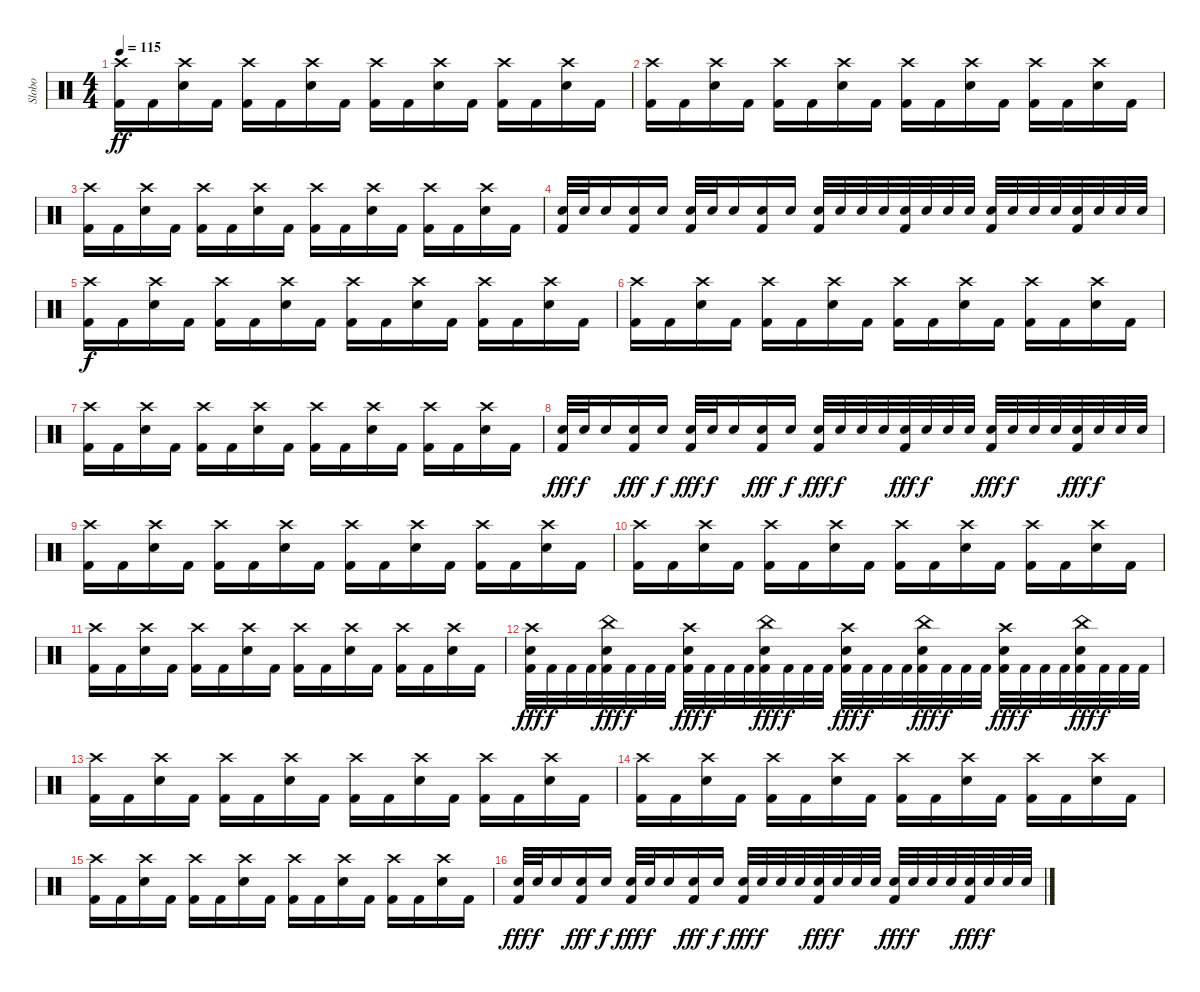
\track ("Slobo" "Slobo") {instrument percussion}
\staff {score}
\articulation defaults
\ts (4 4)
\tempo 115
\clef neutral
\ks c
("Crash high (hit)" "Kick (hit) 2").16{dy ff} "Kick (hit) 2".16 ("Crash high (hit)" "Snare (hit) 2").16 "Kick (hit) 2".16 ("Crash high (hit)" "Kick (hit) 2").16 "Kick (hit) 2".16 ("Crash high (hit)" "Snare (hit) 2").16 "Kick (hit) 2".16 ("Crash high (hit)" "Kick (hit) 2").16 "Kick (hit) 2".16 ("Crash high (hit)" "Snare (hit) 2").16 "Kick (hit) 2".16 ("Crash high (hit)" "Kick (hit) 2").16 "Kick (hit) 2".16 ("Crash high (hit)" "Snare (hit) 2").16 "Kick (hit) 2".16 |
("Crash high (hit)" "Kick (hit) 2").16 "Kick (hit) 2".16 ("Crash high (hit)" "Snare (hit) 2").16 "Kick (hit) 2".16 ("Crash high (hit)" "Kick (hit) 2").16 "Kick (hit) 2".16 ("Crash high (hit)" "Snare (hit) 2").16 "Kick (hit) 2".16 ("Crash high (hit)" "Kick (hit) 2").16 "Kick (hit) 2".16 ("Crash high (hit)" "Snare (hit) 2").16 "Kick (hit) 2".16 ("Crash high (hit)" "Kick (hit) 2").16 "Kick (hit) 2".16 ("Crash high (hit)" "Snare (hit) 2").16 "Kick (hit) 2".16 |
("Crash high (hit)" "Kick (hit) 2").16 "Kick (hit) 2".16 ("Crash high (hit)" "Snare (hit) 2").16 "Kick (hit) 2".16 ("Crash high (hit)" "Kick (hit) 2").16 "Kick (hit) 2".16 ("Crash high (hit)" "Snare (hit) 2").16 "Kick (hit) 2".16 ("Crash high (hit)" "Kick (hit) 2").16 "Kick (hit) 2".16 ("Crash high (hit)" "Snare (hit) 2").16 "Kick (hit) 2".16 ("Crash high (hit)" "Kick (hit) 2").16 "Kick (hit) 2".16 ("Crash high (hit)" "Snare (hit) 2").16 "Kick (hit) 2".16 |
("Kick (hit) 2" "Snare (hit) 2").32 "Snare (hit) 2".32 "Snare (hit) 2".16 ("Kick (hit) 2" "Snare (hit) 2").16 "Snare (hit) 2".16 ("Kick (hit) 2" "Snare (hit) 2").32 "Snare (hit) 2".32 "Snare (hit) 2".16 ("Kick (hit) 2" "Snare (hit) 2").16 "Snare (hit) 2".16 ("Kick (hit) 2" "Snare (hit) 2").32 "Snare (hit) 2".32 "Snare (hit) 2".32 "Snare (hit) 2".32 ("Kick (hit) 2" "Snare (hit) 2").32 "Snare (hit) 2".32 "Snare (hit) 2".32 "Snare (hit) 2".32 ("Kick (hit) 2" "Snare (hit) 2").32 "Snare (hit) 2".32 "Snare (hit) 2".32 "Snare (hit) 2".32 ("Kick (hit) 2" "Snare (hit) 2").32 "Snare (hit) 2".32 "Snare (hit) 2".32 "Snare (hit) 2".32 |
("Crash high (hit)" "Kick (hit) 2").16{dy f} "Kick (hit) 2".16 ("Crash high (hit)" "Snare (hit) 2").16 "Kick (hit) 2".16 ("Crash high (hit)" "Kick (hit) 2").16 "Kick (hit) 2".16 ("Crash high (hit)" "Snare (hit) 2").16 "Kick (hit) 2".16 ("Crash high (hit)" "Kick (hit) 2").16 "Kick (hit) 2".16 ("Crash high (hit)" "Snare (hit) 2").16 "Kick (hit) 2".16 ("Crash high (hit)" "Kick (hit) 2").16 "Kick (hit) 2".16 ("Crash high (hit)" "Snare (hit) 2").16 "Kick (hit) 2".16 |
("Crash high (hit)" "Kick (hit) 2").16 "Kick (hit) 2".16 ("Crash high (hit)" "Snare (hit) 2").16 "Kick (hit) 2".16 ("Crash high (hit)" "Kick (hit) 2").16 "Kick (hit) 2".16 ("Crash high (hit)" "Snare (hit) 2").16 "Kick (hit) 2".16 ("Crash high (hit)" "Kick (hit) 2").16 "Kick (hit) 2".16 ("Crash high (hit)" "Snare (hit) 2").16 "Kick (hit) 2".16 ("Crash high (hit)" "Kick (hit) 2").16 "Kick (hit) 2".16 ("Crash high (hit)" "Snare (hit) 2").16 "Kick (hit) 2".16 |
("Crash high (hit)" "Kick (hit) 2").16 "Kick (hit) 2".16 ("Crash high (hit)" "Snare (hit) 2").16 "Kick (hit) 2".16 ("Crash high (hit)" "Kick (hit) 2").16 "Kick (hit) 2".16 ("Crash high (hit)" "Snare (hit) 2").16 "Kick (hit) 2".16 ("Crash high (hit)" "Kick (hit) 2").16 "Kick (hit) 2".16 ("Crash high (hit)" "Snare (hit) 2").16 "Kick (hit) 2".16 ("Crash high (hit)" "Kick (hit) 2").16 "Kick (hit) 2".16 ("Crash high (hit)" "Snare (hit) 2").16 "Kick (hit) 2".16 |
("Kick (hit) 2" "Snare (hit) 2").32{dy fff} "Snare (hit) 2".32{dy f} "Snare (hit) 2".16 ("Kick (hit) 2" "Snare (hit) 2").16{dy fff} "Snare (hit) 2".16{dy f} ("Kick (hit) 2" "Snare (hit) 2").32{dy fff} "Snare (hit) 2".32{dy f} "Snare (hit) 2".16 ("Kick (hit) 2" "Snare (hit) 2").16{dy fff} "Snare (hit) 2".16{dy f} ("Kick (hit) 2" "Snare (hit) 2").32{dy fff} "Snare (hit) 2".32{dy f} "Snare (hit) 2".32 "Snare (hit) 2".32 ("Kick (hit) 2" "Snare (hit) 2").32{dy fff} "Snare (hit) 2".32{dy f} "Snare (hit) 2".32 "Snare (hit) 2".32 ("Kick (hit) 2" "Snare (hit) 2").32{dy fff} "Snare (hit) 2".32{dy f} "Snare (hit) 2".32 "Snare (hit) 2".32 ("Kick (hit) 2" "Snare (hit) 2").32{dy fff} "Snare (hit) 2".32{dy f} "Snare (hit) 2".32 "Snare (hit) 2".32 |
("Crash high (hit)" "Kick (hit) 2").16 "Kick (hit) 2".16 ("Crash high (hit)" "Snare (hit) 2").16 "Kick (hit) 2".16 ("Crash high (hit)" "Kick (hit) 2").16 "Kick (hit) 2".16 ("Crash high (hit)" "Snare (hit) 2").16 "Kick (hit) 2".16 ("Crash high (hit)" "Kick (hit) 2").16 "Kick (hit) 2".16 ("Crash high (hit)" "Snare (hit) 2").16 "Kick (hit) 2".16 ("Crash high (hit)" "Kick (hit) 2").16 "Kick (hit) 2".16 ("Crash high (hit)" "Snare (hit) 2").16 "Kick (hit) 2".16 |
("Crash high (hit)" "Kick (hit) 2").16 "Kick (hit) 2".16 ("Crash high (hit)" "Snare (hit) 2").16 "Kick (hit) 2".16 ("Crash high (hit)" "Kick (hit) 2").16 "Kick (hit) 2".16 ("Crash high (hit)" "Snare (hit) 2").16 "Kick (hit) 2".16 ("Crash high (hit)" "Kick (hit) 2").16 "Kick (hit) 2".16 ("Crash high (hit)" "Snare (hit) 2").16 "Kick (hit) 2".16 ("Crash high (hit)" "Kick (hit) 2").16 "Kick (hit) 2".16 ("Crash high (hit)" "Snare (hit) 2").16 "Kick (hit) 2".16 |
("Crash high (hit)" "Kick (hit) 2").16 "Kick (hit) 2".16 ("Crash high (hit)" "Snare (hit) 2").16 "Kick (hit) 2".16 ("Crash high (hit)" "Kick (hit) 2").16 "Kick (hit) 2".16 ("Crash high (hit)" "Snare (hit) 2").16 "Kick (hit) 2".16 ("Crash high (hit)" "Kick (hit) 2").16 "Kick (hit) 2".16 ("Crash high (hit)" "Snare (hit) 2").16 "Kick (hit) 2".16 ("Crash high (hit)" "Kick (hit) 2").16 "Kick (hit) 2".16 ("Crash high (hit)" "Snare (hit) 2").16 "Kick (hit) 2".16 |
("Crash high (hit)" "Snare (hit) 2" "Kick (hit) 2").32{dy fff} "Kick (hit) 2".32{dy f} "Kick (hit) 2".32 "Kick (hit) 2".32 ("China (hit)" "Snare (hit) 2" "Kick (hit) 2").32{dy fff} "Kick (hit) 2".32{dy f} "Kick (hit) 2".32 "Kick (hit) 2".32 ("Crash high (hit)" "Snare (hit) 2" "Kick (hit) 2").32{dy fff} "Kick (hit) 2".32{dy f} "Kick (hit) 2".32 "Kick (hit) 2".32 ("China (hit)" "Snare (hit) 2" "Kick (hit) 2").32{dy fff} "Kick (hit) 2".32{dy f} "Kick (hit) 2".32 "Kick (hit) 2".32 ("Crash high (hit)" "Snare (hit) 2" "Kick (hit) 2").32{dy fff} "Kick (hit) 2".32{dy f} "Kick (hit) 2".32 "Kick (hit) 2".32 ("China (hit)" "Snare (hit) 2" "Kick (hit) 2").32{dy fff} "Kick (hit) 2".32{dy f} "Kick (hit) 2".32 "Kick (hit) 2".32 ("Crash high (hit)" "Snare (hit) 2" "Kick (hit) 2").32{dy fff} "Kick (hit) 2".32{dy f} "Kick (hit) 2".32 "Kick (hit) 2".32 ("China (hit)" "Snare (hit) 2" "Kick (hit) 2").32{dy fff} "Kick (hit) 2".32{dy f} "Kick (hit) 2".32 "Kick (hit) 2".32 |
("Crash high (hit)" "Kick (hit) 2").16 "Kick (hit) 2".16 ("Crash high (hit)" "Snare (hit) 2").16 "Kick (hit) 2".16 ("Crash high (hit)" "Kick (hit) 2").16 "Kick (hit) 2".16 ("Crash high (hit)" "Snare (hit) 2").16 "Kick (hit) 2".16 ("Crash high (hit)" "Kick (hit) 2").16 "Kick (hit) 2".16 ("Crash high (hit)" "Snare (hit) 2").16 "Kick (hit) 2".16 ("Crash high (hit)" "Kick (hit) 2").16 "Kick (hit) 2".16 ("Crash high (hit)" "Snare (hit) 2").16 "Kick (hit) 2".16 |
("Crash high (hit)" "Kick (hit) 2").16 "Kick (hit) 2".16 ("Crash high (hit)" "Snare (hit) 2").16 "Kick (hit) 2".16 ("Crash high (hit)" "Kick (hit) 2").16 "Kick (hit) 2".16 ("Crash high (hit)" "Snare (hit) 2").16 "Kick (hit) 2".16 ("Crash high (hit)" "Kick (hit) 2").16 "Kick (hit) 2".16 ("Crash high (hit)" "Snare (hit) 2").16 "Kick (hit) 2".16 ("Crash high (hit)" "Kick (hit) 2").16 "Kick (hit) 2".16 ("Crash high (hit)" "Snare (hit) 2").16 "Kick (hit) 2".16 |
("Crash high (hit)" "Kick (hit) 2").16 "Kick (hit) 2".16 ("Crash high (hit)" "Snare (hit) 2").16 "Kick (hit) 2".16 ("Crash high (hit)" "Kick (hit) 2").16 "Kick (hit) 2".16 ("Crash high (hit)" "Snare (hit) 2").16 "Kick (hit) 2".16 ("Crash high (hit)" "Kick (hit) 2").16 "Kick (hit) 2".16 ("Crash high (hit)" "Snare (hit) 2").16 "Kick (hit) 2".16 ("Crash high (hit)" "Kick (hit) 2").16 "Kick (hit) 2".16 ("Crash high (hit)" "Snare (hit) 2").16 "Kick (hit) 2".16 |
("Kick (hit) 2" "Snare (hit) 2").32{dy fff} "Snare (hit) 2".32{dy f} "Snare (hit) 2".16 ("Kick (hit) 2" "Snare (hit) 2").16{dy fff} "Snare (hit) 2".16{dy f} ("Kick (hit) 2" "Snare (hit) 2").32{dy fff} "Snare (hit) 2".32{dy f} "Snare (hit) 2".16 ("Kick (hit) 2" "Snare (hit) 2").16{dy fff} "Snare (hit) 2".16{dy f} ("Kick (hit) 2" "Snare (hit) 2").32{dy fff} "Snare (hit) 2".32{dy f} "Snare (hit) 2".32 "Snare (hit) 2".32 ("Kick (hit) 2" "Snare (hit) 2").32{dy fff} "Snare (hit) 2".32{dy f} "Snare (hit) 2".32 "Snare (hit) 2".32 ("Kick (hit) 2" "Snare (hit) 2").32{dy fff} "Snare (hit) 2".32{dy f} "Snare (hit) 2".32 "Snare (hit) 2".32 ("Kick (hit) 2" "Snare (hit) 2").32{dy fff} "Snare (hit) 2".32{dy f} "Snare (hit) 2".32 "Snare (hit) 2".32
